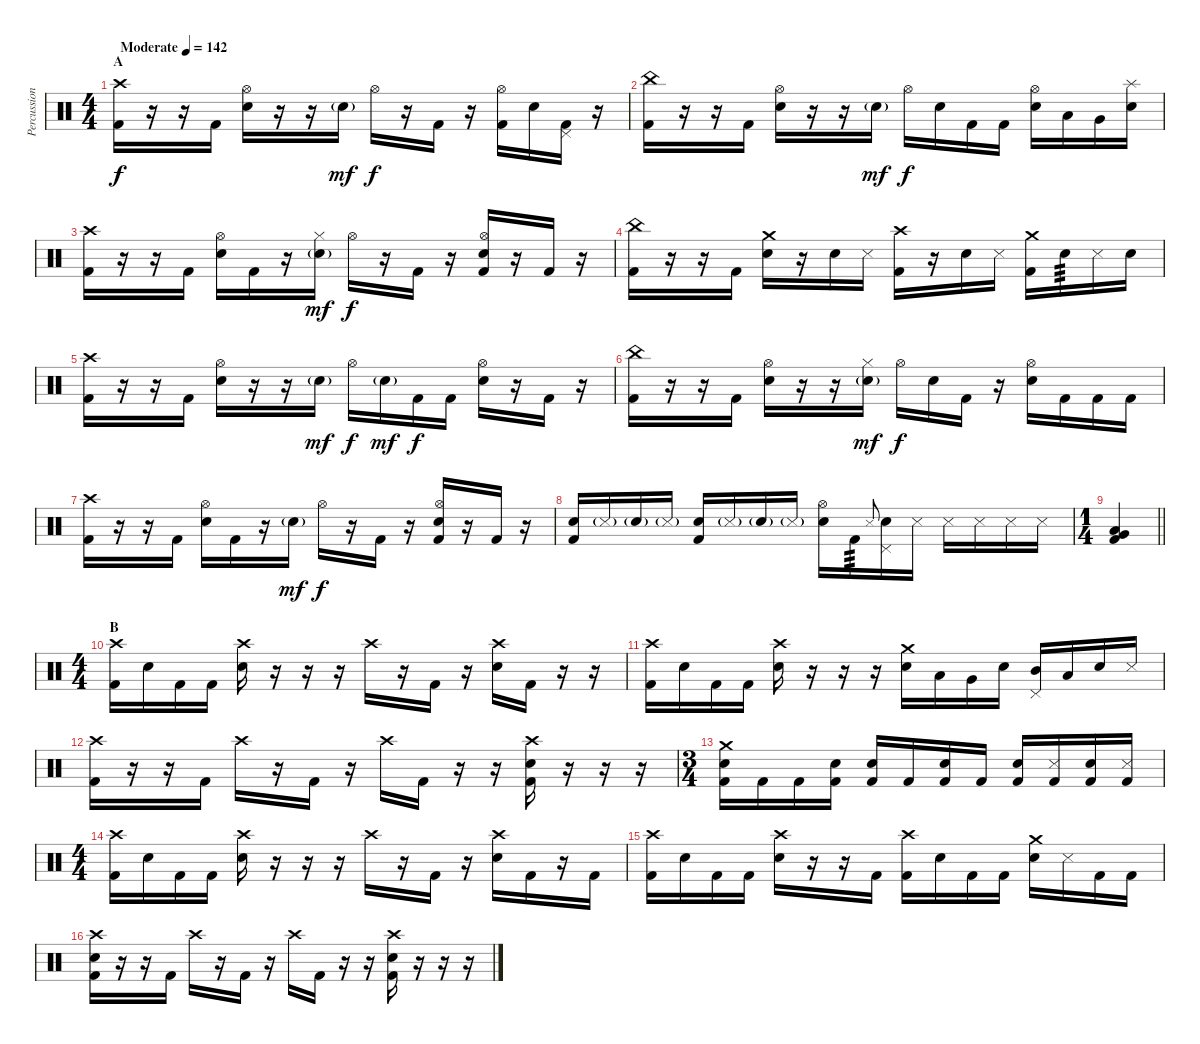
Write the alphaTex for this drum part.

\track ("Percussion" "Percussion") {instrument percussion}
\staff {score}
\articulation defaults
\ts (4 4)
\section ("" "A")
\tempo (142 "Moderate")
\clef neutral
\ks c
("Crash high (hit)" "Kick (hit) 2").16{dy f} r.16 r.16 "Kick (hit) 2".16 ("Hi-Hat (open)" "Snare (hit) 2").16 r.16 r.16 "Snare (hit) 2"{g}.16{dy mf} "Hi-Hat (open)".16{dy f} r.16 "Kick (hit) 2".16 r.16 ("Hi-Hat (open)" "Kick (hit) 2").16 "Snare (hit) 2".16 ("Pedal Hi-Hat (hit)" "Kick (hit) 2").16 r.16 |
("China (hit)" "Kick (hit) 2").16 r.16 r.16 "Kick (hit) 2".16 ("Hi-Hat (open)" "Snare (hit) 2").16 r.16 r.16 "Snare (hit) 2"{g}.16{dy mf} "Hi-Hat (open)".16{dy f} "Snare (hit) 2".16 "Kick (hit) 2".16 "Kick (hit) 2".16 ("Hi-Hat (open)" "Snare (hit) 2").16 "Low Tom (hit)".16 "Very Low Tom (hit)".16 ("Splash (hit)" "Snare (hit) 2").16 |
("Crash high (hit)" "Kick (hit) 2").16 r.16 r.16 "Kick (hit) 2".16 ("Hi-Hat (open)" "Snare (hit) 2").16 "Kick (hit) 2".16 r.16 ("Hi-Hat (closed)" "Snare (hit) 2"{g}).16{dy mf} "Hi-Hat (open)".16{dy f} r.16 "Kick (hit) 2".16 r.16 ("Hi-Hat (open)" "Snare (hit) 2" "Kick (hit) 2").16 r.16 "Kick (hit) 2".16 r.16 |
("China (hit)" "Kick (hit) 2").16 r.16 r.16 "Kick (hit) 2".16 ("Crash medium (hit)" "Snare (hit) 2").16 r.16 "Snare (hit) 2".16 "Metronome (hit)".16 ("Crash high (hit)" "Kick (hit) 2").16 r.16 "Snare (hit) 2".16 "Metronome (hit)".16 ("Crash medium (hit)" "Kick (hit) 2").16 "Snare (hit) 2".16{tp 3} "Metronome (hit)".16 "Snare (hit) 2".16 |
("Crash high (hit)" "Kick (hit) 2").16 r.16 r.16 "Kick (hit) 2".16 ("Hi-Hat (open)" "Snare (hit) 2").16 r.16 r.16 "Snare (hit) 2"{g}.16{dy mf} "Hi-Hat (open)".16{dy f} "Snare (hit) 2"{g}.16{dy mf} "Kick (hit) 2".16{dy f} "Kick (hit) 2".16 ("Hi-Hat (open)" "Snare (hit) 2").16 r.16 "Kick (hit) 2".16 r.16 |
("China (hit)" "Kick (hit) 2").16 r.16 r.16 "Kick (hit) 2".16 ("Hi-Hat (open)" "Snare (hit) 2").16 r.16 r.16 ("Hi-Hat (closed)" "Snare (hit) 2"{g}).16{dy mf} "Hi-Hat (open)".16{dy f} "Snare (hit) 2".16 "Kick (hit) 2".16 r.16 ("Hi-Hat (open)" "Snare (hit) 2").16 "Kick (hit) 2".16 "Kick (hit) 2".16 "Kick (hit) 2".16 |
("Crash high (hit)" "Kick (hit) 2").16 r.16 r.16 "Kick (hit) 2".16 ("Hi-Hat (open)" "Snare (hit) 2").16 "Kick (hit) 2".16 r.16 "Snare (hit) 2"{g}.16{dy mf} "Hi-Hat (open)".16{dy f} r.16 "Kick (hit) 2".16 r.16 ("Hi-Hat (open)" "Snare (hit) 2" "Kick (hit) 2").16 r.16 "Kick (hit) 2".16 r.16 |
("Snare (hit) 2" "Kick (hit) 2").16 "Metronome (hit)"{g}.16 "Snare (hit) 2"{g}.16 "Metronome (hit)"{g}.16 ("Snare (hit) 2" "Kick (hit) 2").16 "Metronome (hit)"{g}.16 "Snare (hit) 2"{g}.16 "Metronome (hit)"{g}.16 ("Hi-Hat (open)" "Snare (hit) 2").16 "Kick (hit) 2".16{tp 3} "Metronome (hit)".8{gr onbeat} ("Pedal Hi-Hat (hit)" "Snare (hit) 2").16 "Snare (side stick) 3".16 "Snare (side stick) 3".16 "Snare (side stick) 3".16 "Snare (side stick) 3".16 "Snare (side stick) 3".16 |
\ts (1 4)
\barLineRight lightlight
("Very Low Tom (hit)" "Low Floor Tom (hit)" "Kick (hit) 2").4 |
\ts (4 4)
\section ("" "B")
("Crash high (hit)" "Kick (hit) 2").16 "Snare (hit) 2".16 "Kick (hit) 2".16 "Kick (hit) 2".16 ("Crash high (hit)" "Snare (hit) 2").16 r.16 r.16 r.16 "Crash high (hit)".16 r.16 "Kick (hit) 2".16 r.16 ("Crash high (hit)" "Snare (hit) 2").16 "Kick (hit) 2".16 r.16 r.16 |
("Crash high (hit)" "Kick (hit) 2").16 "Snare (hit) 2".16 "Kick (hit) 2".16 "Kick (hit) 2".16 ("Crash high (hit)" "Snare (hit) 2").16 r.16 r.16 r.16 ("Crash medium (hit)" "Snare (hit) 2").16 "Low Tom (hit)".16 "Very Low Tom (hit)".16 "Snare (hit) 2".16 ("Pedal Hi-Hat (hit)" "Mid Tom (hit)").16 "Low Tom (hit)".16 "Snare (hit) 2".16 "Metronome (hit)".16 |
("Crash high (hit)" "Kick (hit) 2").16 r.16 r.16 "Kick (hit) 2".16 "Crash high (hit)".16 r.16 "Kick (hit) 2".16 r.16 "Crash high (hit)".16 "Kick (hit) 2".16 r.16 r.16 ("Crash high (hit)" "Snare (hit) 2" "Kick (hit) 2").16 r.16 r.16 r.16 |
\ts (3 4)
("Crash medium (hit)" "Snare (hit) 2" "Kick (hit) 2").16 "Kick (hit) 2".16 "Kick (hit) 2".16 ("Snare (hit) 2" "Kick (hit) 2").16 ("Snare (hit)" "Kick (hit) 2").16 "Kick (hit) 2".16 ("Snare (hit) 2" "Kick (hit) 2").16 "Kick (hit) 2".16 ("Snare (hit) 2" "Kick (hit) 2").16 ("Metronome (hit)" "Kick (hit) 2").16 ("Snare (hit) 2" "Kick (hit) 2").16 ("Metronome (hit)" "Kick (hit) 2").16 |
\ts (4 4)
("Crash high (hit)" "Kick (hit) 2").16 "Snare (hit) 2".16 "Kick (hit) 2".16 "Kick (hit) 2".16 ("Crash high (hit)" "Snare (hit) 2").16 r.16 r.16 r.16 "Crash high (hit)".16 r.16 "Kick (hit) 2".16 r.16 ("Crash high (hit)" "Snare (hit) 2").16 "Kick (hit) 2".16 r.16 "Kick (hit) 2".16 |
("Crash high (hit)" "Kick (hit) 2").16 "Snare (hit) 2".16 "Kick (hit) 2".16 "Kick (hit) 2".16 ("Crash high (hit)" "Snare (hit) 2").16 r.16 r.16 "Kick (hit) 2".16 ("Crash high (hit)" "Kick (hit) 2").16 "Snare (hit) 2".16 "Kick (hit) 2".16 "Kick (hit) 2".16 ("Crash medium (hit)" "Snare (hit) 2").16 "Metronome (hit)".16 "Kick (hit) 2".16 "Kick (hit) 2".16 |
("Crash high (hit)" "Snare (hit) 2" "Kick (hit) 2").16 r.16 r.16 "Kick (hit) 2".16 "Crash high (hit)".16 r.16 "Kick (hit) 2".16 r.16 "Crash high (hit)".16 "Kick (hit) 2".16 r.16 r.16 ("Crash high (hit)" "Snare (hit) 2" "Kick (hit) 2").16 r.16 r.16 r.16
